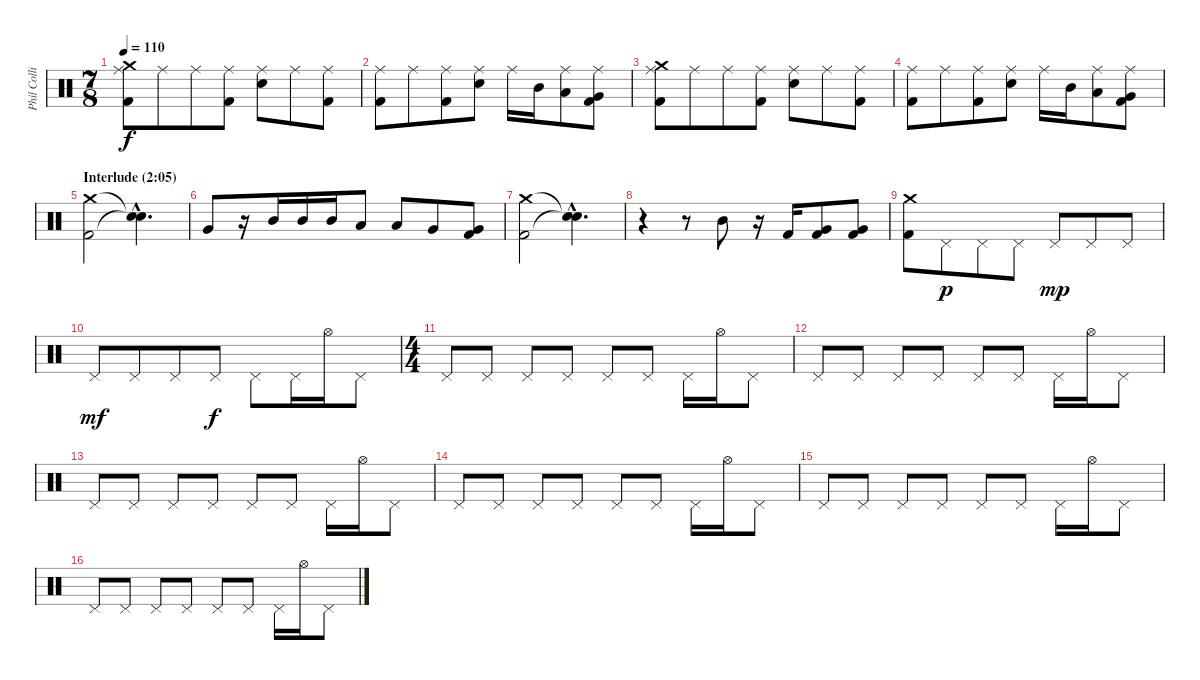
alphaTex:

\track ("Phil Collins (drums)" "Phil Colli") {instrument percussion}
\staff {score}
\articulation defaults
\ts (7 8)
\tempo 110
\clef neutral
\ks c
("Ride (middle)" "Crash medium (hit)" "Kick (hit) 2").8{dy f} "Ride (middle)".8 "Ride (middle)".8 ("Ride (middle)" "Kick (hit) 2").8 ("Ride (middle)" "Electric Snare (hit)").8 "Ride (middle)".8 ("Ride (middle)" "Kick (hit) 2").8 |
("Ride (middle)" "Kick (hit) 2").8 "Ride (middle)".8 ("Ride (middle)" "Kick (hit) 2").8 ("Ride (middle)" "Electric Snare (hit)").8 "Ride (middle)".16 "Mid Tom (hit)".16 ("Ride (middle)" "Low Tom (hit)").8 ("Ride (middle)" "Very Low Tom (hit)" "Kick (hit) 2").8 |
("Ride (middle)" "Crash medium (hit)" "Kick (hit) 2").8 "Ride (middle)".8 "Ride (middle)".8 ("Ride (middle)" "Kick (hit) 2").8 ("Ride (middle)" "Electric Snare (hit)").8 "Ride (middle)".8 ("Ride (middle)" "Kick (hit) 2").8 |
("Ride (middle)" "Kick (hit) 2").8 "Ride (middle)".8 ("Ride (middle)" "Kick (hit) 2").8 ("Ride (middle)" "Electric Snare (hit)").8 "Ride (middle)".16 "Mid Tom (hit)".16 ("Ride (middle)" "Low Tom (hit)").8 ("Ride (middle)" "Very Low Tom (hit)" "Kick (hit) 2").8 |
\section ("" "Interlude (2:05)")
("Crash medium (hit)" "Kick (hit) 2").2 ("Snare (hit)"{hac t} "Snare (hit)"{hac t}).4{d} |
"Very Low Tom (hit)".8 r.16 "Mid Tom (hit)".16 "Mid Tom (hit)".16 "Mid Tom (hit)".16 "Low Tom (hit)".8 "Low Tom (hit)".8 "Very Low Tom (hit)".8 ("Very Low Tom (hit)" "Kick (hit) 2").8 |
("Crash medium (hit)" "Kick (hit) 2").2 ("Snare (hit)"{hac t} "Snare (hit)"{hac t}).4{d} |
r.4 r.8 "Mid Tom (hit)".8 r.16 "Kick (hit) 2".16 ("Very Low Tom (hit)" "Kick (hit) 2").8 ("Very Low Tom (hit)" "Kick (hit) 2").8 |
("Crash medium (hit)" "Kick (hit) 2").8 "Pedal Hi-Hat (hit)".8{dy p} "Pedal Hi-Hat (hit)".8 "Pedal Hi-Hat (hit)".8 "Pedal Hi-Hat (hit)".8{dy mp} "Pedal Hi-Hat (hit)".8 "Pedal Hi-Hat (hit)".8 |
"Pedal Hi-Hat (hit)".8{dy mf} "Pedal Hi-Hat (hit)".8 "Pedal Hi-Hat (hit)".8 "Pedal Hi-Hat (hit)".8{dy f} "Pedal Hi-Hat (hit)".8 "Pedal Hi-Hat (hit)".16 "Hi-Hat (open)".16 "Pedal Hi-Hat (hit)".8 |
\ts (4 4)
"Pedal Hi-Hat (hit)".8 "Pedal Hi-Hat (hit)".8 "Pedal Hi-Hat (hit)".8 "Pedal Hi-Hat (hit)".8 "Pedal Hi-Hat (hit)".8 "Pedal Hi-Hat (hit)".8 "Pedal Hi-Hat (hit)".16 "Hi-Hat (open)".16 "Pedal Hi-Hat (hit)".8 |
"Pedal Hi-Hat (hit)".8 "Pedal Hi-Hat (hit)".8 "Pedal Hi-Hat (hit)".8 "Pedal Hi-Hat (hit)".8 "Pedal Hi-Hat (hit)".8 "Pedal Hi-Hat (hit)".8 "Pedal Hi-Hat (hit)".16 "Hi-Hat (open)".16 "Pedal Hi-Hat (hit)".8 |
"Pedal Hi-Hat (hit)".8 "Pedal Hi-Hat (hit)".8 "Pedal Hi-Hat (hit)".8 "Pedal Hi-Hat (hit)".8 "Pedal Hi-Hat (hit)".8 "Pedal Hi-Hat (hit)".8 "Pedal Hi-Hat (hit)".16 "Hi-Hat (open)".16 "Pedal Hi-Hat (hit)".8 |
"Pedal Hi-Hat (hit)".8 "Pedal Hi-Hat (hit)".8 "Pedal Hi-Hat (hit)".8 "Pedal Hi-Hat (hit)".8 "Pedal Hi-Hat (hit)".8 "Pedal Hi-Hat (hit)".8 "Pedal Hi-Hat (hit)".16 "Hi-Hat (open)".16 "Pedal Hi-Hat (hit)".8 |
"Pedal Hi-Hat (hit)".8 "Pedal Hi-Hat (hit)".8 "Pedal Hi-Hat (hit)".8 "Pedal Hi-Hat (hit)".8 "Pedal Hi-Hat (hit)".8 "Pedal Hi-Hat (hit)".8 "Pedal Hi-Hat (hit)".16 "Hi-Hat (open)".16 "Pedal Hi-Hat (hit)".8 |
"Pedal Hi-Hat (hit)".8 "Pedal Hi-Hat (hit)".8 "Pedal Hi-Hat (hit)".8 "Pedal Hi-Hat (hit)".8 "Pedal Hi-Hat (hit)".8 "Pedal Hi-Hat (hit)".8 "Pedal Hi-Hat (hit)".16 "Hi-Hat (open)".16 "Pedal Hi-Hat (hit)".8
